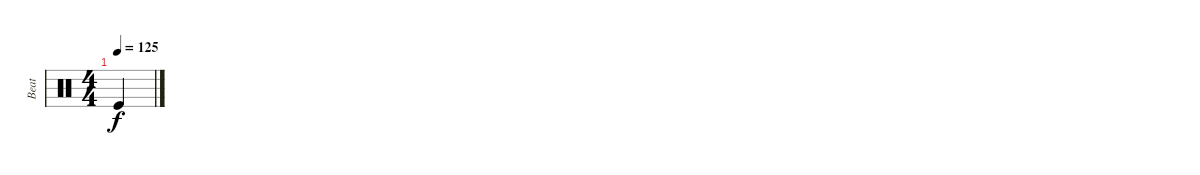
\track ("Beat" "Beat") {instrument percussion}
\staff {score}
\articulation defaults
\ts (4 4)
\tempo 125
\clef neutral
\ks c "Kick (hit)".4{dy f}
